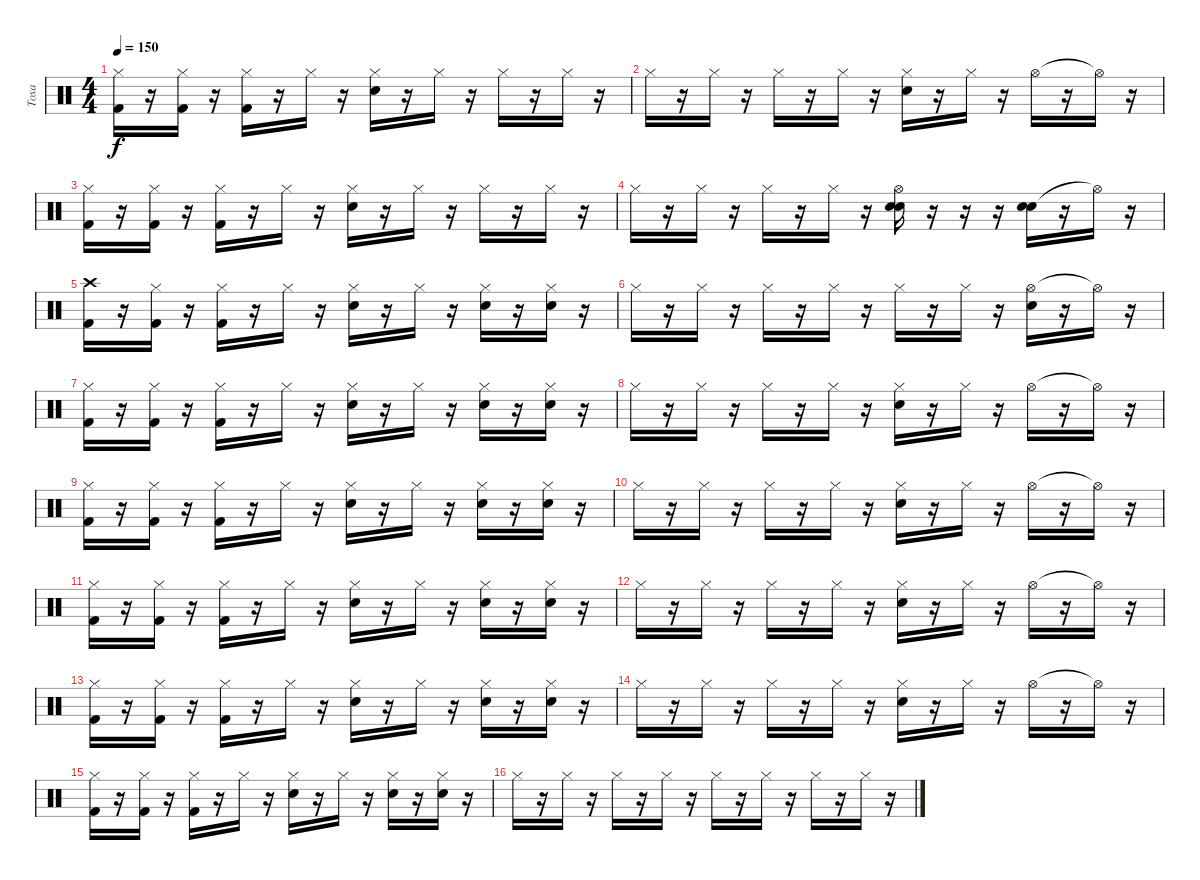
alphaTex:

\track ("Тоха" "Тоха") {instrument percussion}
\staff {score}
\articulation defaults
\ts (4 4)
\tempo 150
\clef neutral
\ks c
("Hi-Hat (closed)" "Kick (hit) 2").16{dy f} r.16 ("Hi-Hat (closed)" "Kick (hit) 2").16 r.16 ("Hi-Hat (closed)" "Kick (hit) 2").16 r.16 "Hi-Hat (closed)".16 r.16 ("Hi-Hat (closed)" "Electric Snare (hit)").16 r.16 "Hi-Hat (closed)".16 r.16 "Hi-Hat (closed)".16 r.16 "Hi-Hat (closed)".16 r.16 |
"Hi-Hat (closed)".16 r.16 "Hi-Hat (closed)".16 r.16 "Hi-Hat (closed)".16 r.16 "Hi-Hat (closed)".16 r.16 ("Hi-Hat (closed)" "Electric Snare (hit)").16 r.16 "Hi-Hat (closed)".16 r.16 "Hi-Hat (open)".16 r.16 "Hi-Hat (open)"{t}.16 r.16 |
("Hi-Hat (closed)" "Kick (hit) 2").16 r.16 ("Hi-Hat (closed)" "Kick (hit) 2").16 r.16 ("Hi-Hat (closed)" "Kick (hit) 2").16 r.16 "Hi-Hat (closed)".16 r.16 ("Hi-Hat (closed)" "Electric Snare (hit)").16 r.16 "Hi-Hat (closed)".16 r.16 "Hi-Hat (closed)".16 r.16 "Hi-Hat (closed)".16 r.16 |
"Hi-Hat (closed)".16 r.16 "Hi-Hat (closed)".16 r.16 "Hi-Hat (closed)".16 r.16 "Hi-Hat (closed)".16 r.16 ("Hi-Hat (open)" "Electric Snare (hit)" "Electric Snare (hit)").16 r.16 r.16 r.16 ("Electric Snare (hit)" "Electric Snare (hit)").16 r.16 "Hi-Hat (open)"{t}.16 r.16 |
("Crash high (hit)" "Kick (hit) 2").16 r.16 ("Hi-Hat (closed)" "Kick (hit) 2").16 r.16 ("Hi-Hat (closed)" "Kick (hit) 2").16 r.16 "Hi-Hat (closed)".16 r.16 ("Hi-Hat (closed)" "Electric Snare (hit)").16 r.16 "Hi-Hat (closed)".16 r.16 ("Hi-Hat (closed)" "Electric Snare (hit)").16 r.16 ("Hi-Hat (closed)" "Electric Snare (hit)").16 r.16 |
"Hi-Hat (closed)".16 r.16 "Hi-Hat (closed)".16 r.16 "Hi-Hat (closed)".16 r.16 "Hi-Hat (closed)".16 r.16 "Hi-Hat (closed)".16 r.16 "Hi-Hat (closed)".16 r.16 ("Hi-Hat (open)" "Electric Snare (hit)").16 r.16 "Hi-Hat (open)"{t}.16 r.16 |
("Hi-Hat (closed)" "Kick (hit) 2").16 r.16 ("Hi-Hat (closed)" "Kick (hit) 2").16 r.16 ("Hi-Hat (closed)" "Kick (hit) 2").16 r.16 "Hi-Hat (closed)".16 r.16 ("Hi-Hat (closed)" "Electric Snare (hit)").16 r.16 "Hi-Hat (closed)".16 r.16 ("Hi-Hat (closed)" "Electric Snare (hit)").16 r.16 ("Hi-Hat (closed)" "Electric Snare (hit)").16 r.16 |
"Hi-Hat (closed)".16 r.16 "Hi-Hat (closed)".16 r.16 "Hi-Hat (closed)".16 r.16 "Hi-Hat (closed)".16 r.16 ("Hi-Hat (closed)" "Electric Snare (hit)").16 r.16 "Hi-Hat (closed)".16 r.16 "Hi-Hat (open)".16 r.16 "Hi-Hat (open)"{t}.16 r.16 |
("Hi-Hat (closed)" "Kick (hit) 2").16 r.16 ("Hi-Hat (closed)" "Kick (hit) 2").16 r.16 ("Hi-Hat (closed)" "Kick (hit) 2").16 r.16 "Hi-Hat (closed)".16 r.16 ("Hi-Hat (closed)" "Electric Snare (hit)").16 r.16 "Hi-Hat (closed)".16 r.16 ("Hi-Hat (closed)" "Electric Snare (hit)").16 r.16 ("Hi-Hat (closed)" "Electric Snare (hit)").16 r.16 |
"Hi-Hat (closed)".16 r.16 "Hi-Hat (closed)".16 r.16 "Hi-Hat (closed)".16 r.16 "Hi-Hat (closed)".16 r.16 ("Hi-Hat (closed)" "Electric Snare (hit)").16 r.16 "Hi-Hat (closed)".16 r.16 "Hi-Hat (open)".16 r.16 "Hi-Hat (open)"{t}.16 r.16 |
("Hi-Hat (closed)" "Kick (hit) 2").16 r.16 ("Hi-Hat (closed)" "Kick (hit) 2").16 r.16 ("Hi-Hat (closed)" "Kick (hit) 2").16 r.16 "Hi-Hat (closed)".16 r.16 ("Hi-Hat (closed)" "Electric Snare (hit)").16 r.16 "Hi-Hat (closed)".16 r.16 ("Hi-Hat (closed)" "Electric Snare (hit)").16 r.16 ("Hi-Hat (closed)" "Electric Snare (hit)").16 r.16 |
"Hi-Hat (closed)".16 r.16 "Hi-Hat (closed)".16 r.16 "Hi-Hat (closed)".16 r.16 "Hi-Hat (closed)".16 r.16 ("Hi-Hat (closed)" "Electric Snare (hit)").16 r.16 "Hi-Hat (closed)".16 r.16 "Hi-Hat (open)".16 r.16 "Hi-Hat (open)"{t}.16 r.16 |
("Hi-Hat (closed)" "Kick (hit) 2").16 r.16 ("Hi-Hat (closed)" "Kick (hit) 2").16 r.16 ("Hi-Hat (closed)" "Kick (hit) 2").16 r.16 "Hi-Hat (closed)".16 r.16 ("Hi-Hat (closed)" "Electric Snare (hit)").16 r.16 "Hi-Hat (closed)".16 r.16 ("Hi-Hat (closed)" "Electric Snare (hit)").16 r.16 ("Hi-Hat (closed)" "Electric Snare (hit)").16 r.16 |
"Hi-Hat (closed)".16 r.16 "Hi-Hat (closed)".16 r.16 "Hi-Hat (closed)".16 r.16 "Hi-Hat (closed)".16 r.16 ("Hi-Hat (closed)" "Electric Snare (hit)").16 r.16 "Hi-Hat (closed)".16 r.16 "Hi-Hat (open)".16 r.16 "Hi-Hat (open)"{t}.16 r.16 |
("Hi-Hat (closed)" "Kick (hit) 2").16 r.16 ("Hi-Hat (closed)" "Kick (hit) 2").16 r.16 ("Hi-Hat (closed)" "Kick (hit) 2").16 r.16 "Hi-Hat (closed)".16 r.16 ("Hi-Hat (closed)" "Electric Snare (hit)").16 r.16 "Hi-Hat (closed)".16 r.16 ("Hi-Hat (closed)" "Electric Snare (hit)").16 r.16 ("Hi-Hat (closed)" "Electric Snare (hit)").16 r.16 |
"Hi-Hat (closed)".16 r.16 "Hi-Hat (closed)".16 r.16 "Hi-Hat (closed)".16 r.16 "Hi-Hat (closed)".16 r.16 "Hi-Hat (closed)".16 r.16 "Hi-Hat (closed)".16 r.16 "Hi-Hat (closed)".16 r.16 "Hi-Hat (closed)".16 r.16
